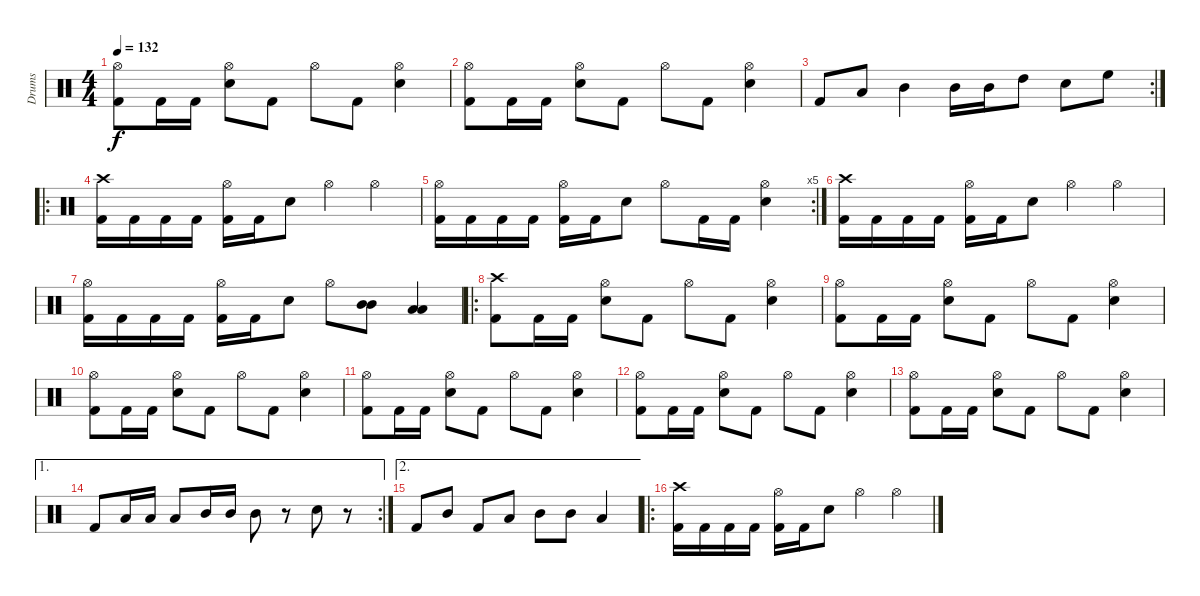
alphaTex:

\track ("Drums" "Drums") {instrument percussion}
\staff {score}
\articulation defaults
\ts (4 4)
\tempo 132
\clef neutral
\ks c
("Kick (hit) 2" "Hi-Hat (open)").8{dy f} "Kick (hit) 2".16 "Kick (hit) 2".16 ("Snare (hit) 2" "Hi-Hat (open)").8 "Kick (hit) 2".8 "Hi-Hat (open)".8 "Kick (hit) 2".8 ("Snare (hit) 2" "Hi-Hat (open)").4 |
("Kick (hit) 2" "Hi-Hat (open)").8 "Kick (hit) 2".16 "Kick (hit) 2".16 ("Snare (hit) 2" "Hi-Hat (open)").8 "Kick (hit) 2".8 "Hi-Hat (open)".8 "Kick (hit) 2".8 ("Snare (hit) 2" "Hi-Hat (open)").4 |
\rc 2 "Kick (hit) 2".8 "Low Tom (hit)".8 "Mid Tom (hit)".4 "Mid Tom (hit)".16 "Mid Tom (hit)".16 "High Tom (hit)".8 "Snare (hit) 2".8 "High Floor Tom (hit)".8
|
\ro
("Kick (hit) 2" "Crash high (hit)").16 "Kick (hit) 2".16 "Kick (hit) 2".16 "Kick (hit) 2".16 ("Kick (hit) 2" "Hi-Hat (open)").16 "Kick (hit) 2".16 "Snare (hit) 2".8 "Hi-Hat (open)".4 "Hi-Hat (open)".4 |
\rc 5
("Kick (hit) 2" "Hi-Hat (open)").16 "Kick (hit) 2".16 "Kick (hit) 2".16 "Kick (hit) 2".16 ("Kick (hit) 2" "Hi-Hat (open)").16 "Kick (hit) 2".16 "Snare (hit) 2".8 "Hi-Hat (open)".8 "Kick (hit) 2".16 "Kick (hit) 2".16 ("Snare (hit) 2" "Hi-Hat (open)").4 |
("Kick (hit) 2" "Crash high (hit)").16 "Kick (hit) 2".16 "Kick (hit) 2".16 "Kick (hit) 2".16 ("Kick (hit) 2" "Hi-Hat (open)").16 "Kick (hit) 2".16 "Snare (hit) 2".8 "Hi-Hat (open)".4 "Hi-Hat (open)".4 |
("Kick (hit) 2" "Hi-Hat (open)").16 "Kick (hit) 2".16 "Kick (hit) 2".16 "Kick (hit) 2".16 ("Kick (hit) 2" "Hi-Hat (open)").16 "Kick (hit) 2".16 "Snare (hit) 2".8 "Hi-Hat (open)".8 ("Mid Tom (hit)" "Mid Tom (hit)").8 ("Low Tom (hit)" "Low Tom (hit)").4 |
\ro
("Kick (hit) 2" "Crash high (hit)").8 "Kick (hit) 2".16 "Kick (hit) 2".16 ("Snare (hit) 2" "Hi-Hat (open)").8 "Kick (hit) 2".8 "Hi-Hat (open)".8 "Kick (hit) 2".8 ("Snare (hit) 2" "Hi-Hat (open)").4 |
("Kick (hit) 2" "Hi-Hat (open)").8 "Kick (hit) 2".16 "Kick (hit) 2".16 ("Snare (hit) 2" "Hi-Hat (open)").8 "Kick (hit) 2".8 "Hi-Hat (open)".8 "Kick (hit) 2".8 ("Snare (hit) 2" "Hi-Hat (open)").4 |
("Kick (hit) 2" "Hi-Hat (open)").8 "Kick (hit) 2".16 "Kick (hit) 2".16 ("Snare (hit) 2" "Hi-Hat (open)").8 "Kick (hit) 2".8 "Hi-Hat (open)".8 "Kick (hit) 2".8 ("Snare (hit) 2" "Hi-Hat (open)").4 |
("Kick (hit) 2" "Hi-Hat (open)").8 "Kick (hit) 2".16 "Kick (hit) 2".16 ("Snare (hit) 2" "Hi-Hat (open)").8 "Kick (hit) 2".8 "Hi-Hat (open)".8 "Kick (hit) 2".8 ("Snare (hit) 2" "Hi-Hat (open)").4 |
("Kick (hit) 2" "Hi-Hat (open)").8 "Kick (hit) 2".16 "Kick (hit) 2".16 ("Snare (hit) 2" "Hi-Hat (open)").8 "Kick (hit) 2".8 "Hi-Hat (open)".8 "Kick (hit) 2".8 ("Snare (hit) 2" "Hi-Hat (open)").4 |
("Kick (hit) 2" "Hi-Hat (open)").8 "Kick (hit) 2".16 "Kick (hit) 2".16 ("Snare (hit) 2" "Hi-Hat (open)").8 "Kick (hit) 2".8 "Hi-Hat (open)".8 "Kick (hit) 2".8 ("Snare (hit) 2" "Hi-Hat (open)").4 |
\ae 1
\rc 2 "Kick (hit) 2".8 "Low Tom (hit)".16 "Low Tom (hit)".16 "Low Tom (hit)".8 "Mid Tom (hit)".16 "Mid Tom (hit)".16 "Mid Tom (hit)".8
r.8 "Snare (hit) 2".8 r.8 |
\ae 2 "Kick (hit) 2".8 "Mid Tom (hit)".8 "Kick (hit) 2".8 "Low Tom (hit)".8 "Mid Tom (hit)".8 "Mid Tom (hit)".8 "Low Tom (hit)".4
|
\ro
("Kick (hit) 2" "Crash high (hit)").16 "Kick (hit) 2".16 "Kick (hit) 2".16 "Kick (hit) 2".16 ("Kick (hit) 2" "Hi-Hat (open)").16 "Kick (hit) 2".16 "Snare (hit) 2".8 "Hi-Hat (open)".4 "Hi-Hat (open)".4
